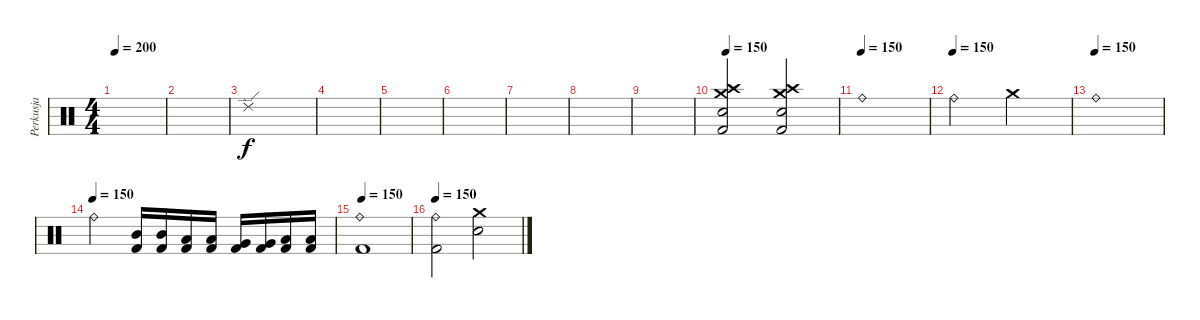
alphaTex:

\track ("Perkusja" "Perkusja") {instrument percussion}
\staff {score}
\articulation defaults
\ts (4 4)
\tempo 200
\clef neutral
\ks c
|
|
"Ride (edge) 2".1 |
|
|
|
|
|
|
\tempo 150
("Kick (hit) 2" "Crash medium (hit)" "Crash high (hit)" "Snare (hit) 2").2 ("Kick (hit) 2" "Crash medium (hit)" "Crash high (hit)" "Snare (hit) 2").2 |
\tempo (150)
"Ride (bell)".1 |
\tempo (150)
"Ride (bell)".2 "Crash medium (hit)".2 |
\tempo (150)
"Ride (bell)".1 |
\tempo (150)
"Ride (bell)".2 ("Kick (hit) 2" "Mid Tom (hit)").16 ("Kick (hit) 2" "Mid Tom (hit)").16 ("Kick (hit) 2" "Low Tom (hit)").16 ("Kick (hit) 2" "Low Tom (hit)").16 ("Kick (hit) 2" "Very Low Tom (hit)").16 ("Kick (hit) 2" "Very Low Tom (hit)").16 ("Kick (hit) 2" "Low Floor Tom (hit)").16 ("Kick (hit) 2" "Low Floor Tom (hit)").16 |
\tempo 150
("Kick (hit) 2" "Ride (bell)").1 |
\tempo 150
("Kick (hit) 2" "Ride (bell)").2 ("Electric Snare (hit)" "Crash medium (hit)").2
